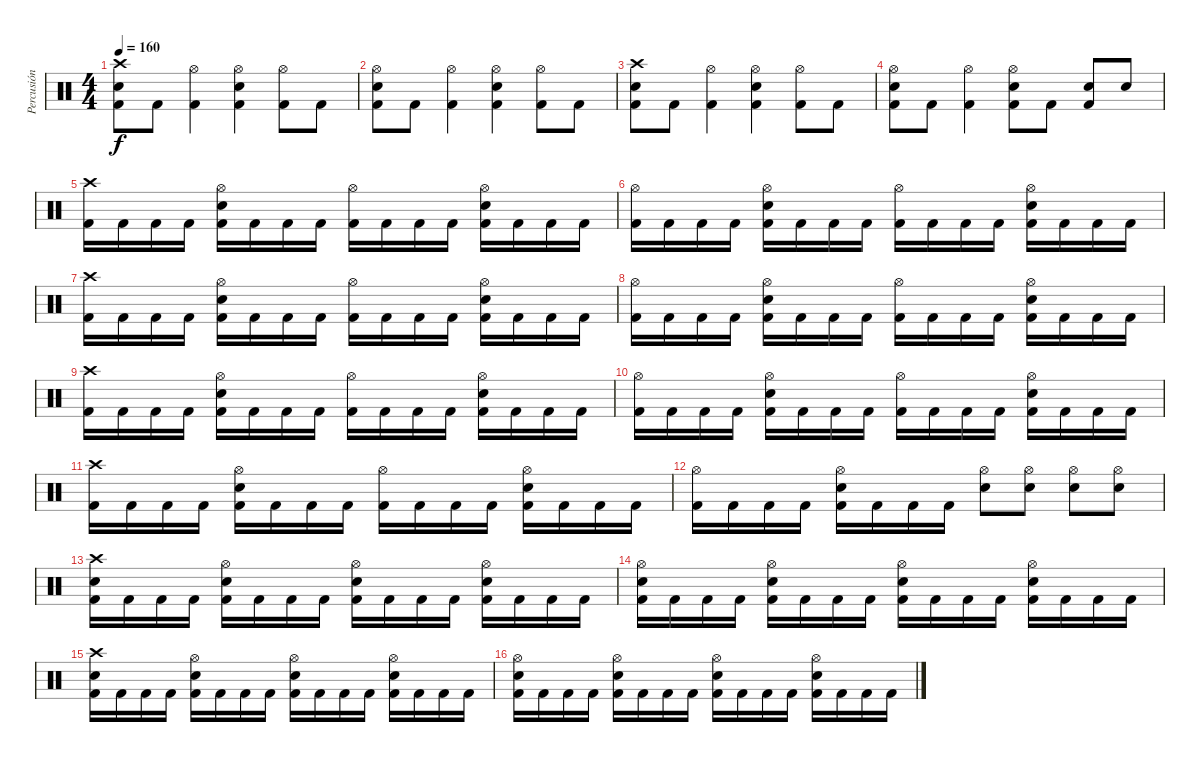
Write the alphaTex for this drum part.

\track ("Percusión" "Percusión") {instrument percussion}
\staff {score}
\articulation defaults
\ts (4 4)
\tempo 160
\clef neutral
\ks c
("Crash high (hit)" "Snare (hit) 2" "Kick (hit) 2").8{dy f} "Kick (hit) 2".8 ("Hi-Hat (open)" "Kick (hit) 2").4 ("Hi-Hat (open)" "Snare (hit) 2" "Kick (hit) 2").4 ("Hi-Hat (open)" "Kick (hit) 2").8 "Kick (hit) 2".8 |
("Hi-Hat (open)" "Snare (hit) 2" "Kick (hit) 2").8 "Kick (hit) 2".8 ("Hi-Hat (open)" "Kick (hit) 2").4 ("Hi-Hat (open)" "Snare (hit) 2" "Kick (hit) 2").4 ("Hi-Hat (open)" "Kick (hit) 2").8 "Kick (hit) 2".8 |
("Crash high (hit)" "Snare (hit) 2" "Kick (hit) 2").8 "Kick (hit) 2".8 ("Hi-Hat (open)" "Kick (hit) 2").4 ("Hi-Hat (open)" "Snare (hit) 2" "Kick (hit) 2").4 ("Hi-Hat (open)" "Kick (hit) 2").8 "Kick (hit) 2".8 |
("Hi-Hat (open)" "Snare (hit) 2" "Kick (hit) 2").8 "Kick (hit) 2".8 ("Hi-Hat (open)" "Kick (hit) 2").4 ("Hi-Hat (open)" "Snare (hit) 2" "Kick (hit) 2").8 "Kick (hit) 2".8 ("Snare (hit) 2" "Kick (hit) 2").8 "Snare (hit) 2".8 |
("Crash high (hit)" "Kick (hit) 2").16 "Kick (hit) 2".16 "Kick (hit) 2".16 "Kick (hit) 2".16 ("Hi-Hat (open)" "Snare (hit) 2" "Kick (hit) 2").16 "Kick (hit) 2".16 "Kick (hit) 2".16 "Kick (hit) 2".16 ("Hi-Hat (open)" "Kick (hit) 2").16 "Kick (hit) 2".16 "Kick (hit) 2".16 "Kick (hit) 2".16 ("Hi-Hat (open)" "Snare (hit) 2" "Kick (hit) 2").16 "Kick (hit) 2".16 "Kick (hit) 2".16 "Kick (hit) 2".16 |
("Hi-Hat (open)" "Kick (hit) 2").16 "Kick (hit) 2".16 "Kick (hit) 2".16 "Kick (hit) 2".16 ("Hi-Hat (open)" "Snare (hit) 2" "Kick (hit) 2").16 "Kick (hit) 2".16 "Kick (hit) 2".16 "Kick (hit) 2".16 ("Hi-Hat (open)" "Kick (hit) 2").16 "Kick (hit) 2".16 "Kick (hit) 2".16 "Kick (hit) 2".16 ("Hi-Hat (open)" "Snare (hit) 2" "Kick (hit) 2").16 "Kick (hit) 2".16 "Kick (hit) 2".16 "Kick (hit) 2".16 |
("Crash high (hit)" "Kick (hit) 2").16 "Kick (hit) 2".16 "Kick (hit) 2".16 "Kick (hit) 2".16 ("Hi-Hat (open)" "Snare (hit) 2" "Kick (hit) 2").16 "Kick (hit) 2".16 "Kick (hit) 2".16 "Kick (hit) 2".16 ("Hi-Hat (open)" "Kick (hit) 2").16 "Kick (hit) 2".16 "Kick (hit) 2".16 "Kick (hit) 2".16 ("Hi-Hat (open)" "Snare (hit) 2" "Kick (hit) 2").16 "Kick (hit) 2".16 "Kick (hit) 2".16 "Kick (hit) 2".16 |
("Hi-Hat (open)" "Kick (hit) 2").16 "Kick (hit) 2".16 "Kick (hit) 2".16 "Kick (hit) 2".16 ("Hi-Hat (open)" "Snare (hit) 2" "Kick (hit) 2").16 "Kick (hit) 2".16 "Kick (hit) 2".16 "Kick (hit) 2".16 ("Hi-Hat (open)" "Kick (hit) 2").16 "Kick (hit) 2".16 "Kick (hit) 2".16 "Kick (hit) 2".16 ("Hi-Hat (open)" "Snare (hit) 2" "Kick (hit) 2").16 "Kick (hit) 2".16 "Kick (hit) 2".16 "Kick (hit) 2".16 |
("Crash high (hit)" "Kick (hit) 2").16 "Kick (hit) 2".16 "Kick (hit) 2".16 "Kick (hit) 2".16 ("Hi-Hat (open)" "Snare (hit) 2" "Kick (hit) 2").16 "Kick (hit) 2".16 "Kick (hit) 2".16 "Kick (hit) 2".16 ("Hi-Hat (open)" "Kick (hit) 2").16 "Kick (hit) 2".16 "Kick (hit) 2".16 "Kick (hit) 2".16 ("Hi-Hat (open)" "Snare (hit) 2" "Kick (hit) 2").16 "Kick (hit) 2".16 "Kick (hit) 2".16 "Kick (hit) 2".16 |
("Hi-Hat (open)" "Kick (hit) 2").16 "Kick (hit) 2".16 "Kick (hit) 2".16 "Kick (hit) 2".16 ("Hi-Hat (open)" "Snare (hit) 2" "Kick (hit) 2").16 "Kick (hit) 2".16 "Kick (hit) 2".16 "Kick (hit) 2".16 ("Hi-Hat (open)" "Kick (hit) 2").16 "Kick (hit) 2".16 "Kick (hit) 2".16 "Kick (hit) 2".16 ("Hi-Hat (open)" "Snare (hit) 2" "Kick (hit) 2").16 "Kick (hit) 2".16 "Kick (hit) 2".16 "Kick (hit) 2".16 |
("Crash high (hit)" "Kick (hit) 2").16 "Kick (hit) 2".16 "Kick (hit) 2".16 "Kick (hit) 2".16 ("Hi-Hat (open)" "Snare (hit) 2" "Kick (hit) 2").16 "Kick (hit) 2".16 "Kick (hit) 2".16 "Kick (hit) 2".16 ("Hi-Hat (open)" "Kick (hit) 2").16 "Kick (hit) 2".16 "Kick (hit) 2".16 "Kick (hit) 2".16 ("Hi-Hat (open)" "Snare (hit) 2" "Kick (hit) 2").16 "Kick (hit) 2".16 "Kick (hit) 2".16 "Kick (hit) 2".16 |
("Hi-Hat (open)" "Kick (hit) 2").16 "Kick (hit) 2".16 "Kick (hit) 2".16 "Kick (hit) 2".16 ("Hi-Hat (open)" "Snare (hit) 2" "Kick (hit) 2").16 "Kick (hit) 2".16 "Kick (hit) 2".16 "Kick (hit) 2".16 ("Hi-Hat (open)" "Snare (hit) 2").8 ("Hi-Hat (open)" "Snare (hit) 2").8 ("Hi-Hat (open)" "Snare (hit) 2").8 ("Hi-Hat (open)" "Snare (hit) 2").8 |
("Crash high (hit)" "Snare (hit) 2" "Kick (hit) 2").16 "Kick (hit) 2".16 "Kick (hit) 2".16 "Kick (hit) 2".16 ("Hi-Hat (open)" "Snare (hit) 2" "Kick (hit) 2").16 "Kick (hit) 2".16 "Kick (hit) 2".16 "Kick (hit) 2".16 ("Hi-Hat (open)" "Snare (hit) 2" "Kick (hit) 2").16 "Kick (hit) 2".16 "Kick (hit) 2".16 "Kick (hit) 2".16 ("Hi-Hat (open)" "Snare (hit) 2" "Kick (hit) 2").16 "Kick (hit) 2".16 "Kick (hit) 2".16 "Kick (hit) 2".16 |
("Hi-Hat (open)" "Snare (hit) 2" "Kick (hit) 2").16 "Kick (hit) 2".16 "Kick (hit) 2".16 "Kick (hit) 2".16 ("Hi-Hat (open)" "Snare (hit) 2" "Kick (hit) 2").16 "Kick (hit) 2".16 "Kick (hit) 2".16 "Kick (hit) 2".16 ("Hi-Hat (open)" "Snare (hit) 2" "Kick (hit) 2").16 "Kick (hit) 2".16 "Kick (hit) 2".16 "Kick (hit) 2".16 ("Hi-Hat (open)" "Snare (hit) 2" "Kick (hit) 2").16 "Kick (hit) 2".16 "Kick (hit) 2".16 "Kick (hit) 2".16 |
("Crash high (hit)" "Snare (hit) 2" "Kick (hit) 2").16 "Kick (hit) 2".16 "Kick (hit) 2".16 "Kick (hit) 2".16 ("Hi-Hat (open)" "Snare (hit) 2" "Kick (hit) 2").16 "Kick (hit) 2".16 "Kick (hit) 2".16 "Kick (hit) 2".16 ("Hi-Hat (open)" "Snare (hit) 2" "Kick (hit) 2").16 "Kick (hit) 2".16 "Kick (hit) 2".16 "Kick (hit) 2".16 ("Hi-Hat (open)" "Snare (hit) 2" "Kick (hit) 2").16 "Kick (hit) 2".16 "Kick (hit) 2".16 "Kick (hit) 2".16 |
("Hi-Hat (open)" "Snare (hit) 2" "Kick (hit) 2").16 "Kick (hit) 2".16 "Kick (hit) 2".16 "Kick (hit) 2".16 ("Hi-Hat (open)" "Snare (hit) 2" "Kick (hit) 2").16 "Kick (hit) 2".16 "Kick (hit) 2".16 "Kick (hit) 2".16 ("Hi-Hat (open)" "Snare (hit) 2" "Kick (hit) 2").16 "Kick (hit) 2".16 "Kick (hit) 2".16 "Kick (hit) 2".16 ("Hi-Hat (open)" "Snare (hit) 2" "Kick (hit) 2").16 "Kick (hit) 2".16 "Kick (hit) 2".16 "Kick (hit) 2".16
